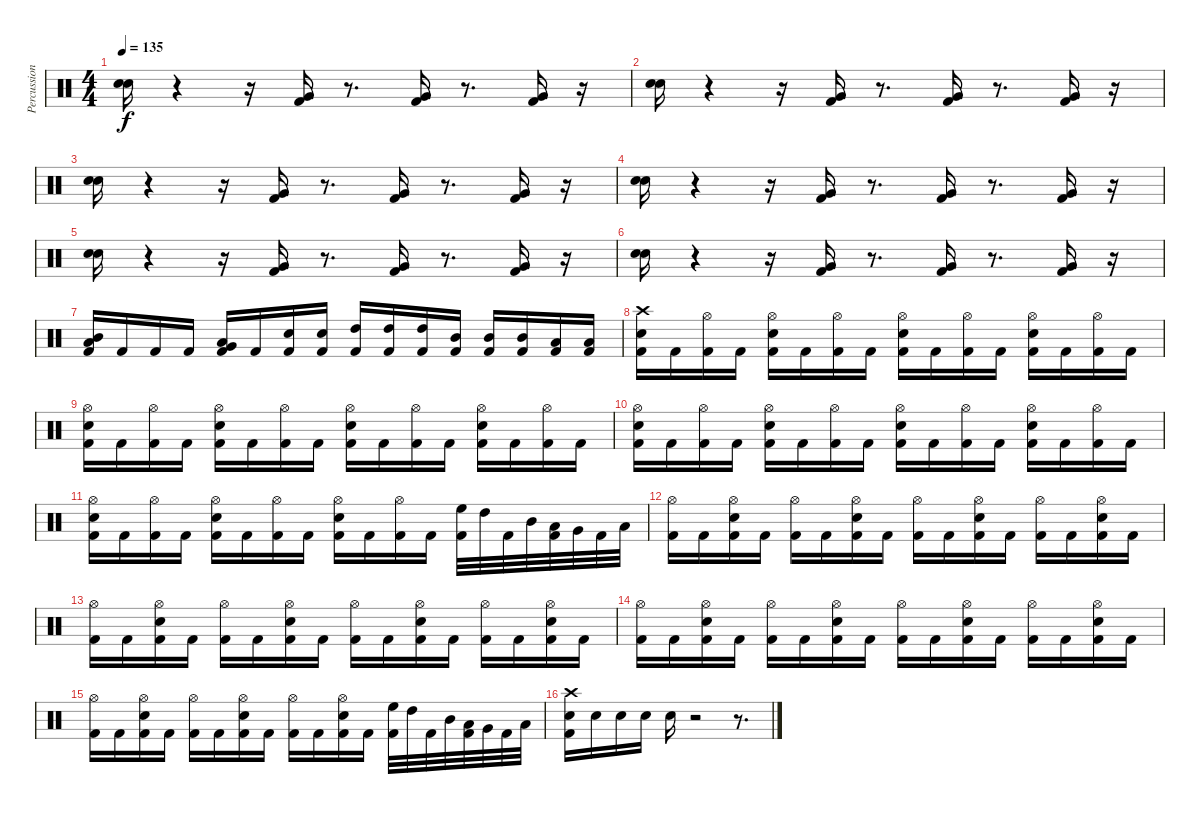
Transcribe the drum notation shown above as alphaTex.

\track ("Percussion" "Percussion") {instrument percussion}
\staff {score}
\articulation defaults
\ts (4 4)
\tempo 135
\clef neutral
\ks c
("Snare (hit) 2" "Electric Snare (hit)").16{dy f} r.4 r.16 ("Kick (hit) 2" "Very Low Tom (hit)").16 r.8{d} ("Kick (hit) 2" "Very Low Tom (hit)").16 r.8{d} ("Kick (hit) 2" "Very Low Tom (hit)").16 r.16 |
("Snare (hit) 2" "Electric Snare (hit)").16 r.4 r.16 ("Kick (hit) 2" "Very Low Tom (hit)").16 r.8{d} ("Kick (hit) 2" "Very Low Tom (hit)").16 r.8{d} ("Kick (hit) 2" "Very Low Tom (hit)").16 r.16 |
("Snare (hit) 2" "Electric Snare (hit)").16 r.4 r.16 ("Kick (hit) 2" "Very Low Tom (hit)").16 r.8{d} ("Kick (hit) 2" "Very Low Tom (hit)").16 r.8{d} ("Kick (hit) 2" "Very Low Tom (hit)").16 r.16 |
("Snare (hit) 2" "Electric Snare (hit)").16 r.4 r.16 ("Kick (hit) 2" "Very Low Tom (hit)").16 r.8{d} ("Kick (hit) 2" "Very Low Tom (hit)").16 r.8{d} ("Kick (hit) 2" "Very Low Tom (hit)").16 r.16 |
("Snare (hit) 2" "Electric Snare (hit)").16 r.4 r.16 ("Kick (hit) 2" "Very Low Tom (hit)").16 r.8{d} ("Kick (hit) 2" "Very Low Tom (hit)").16 r.8{d} ("Kick (hit) 2" "Very Low Tom (hit)").16 r.16 |
("Snare (hit) 2" "Electric Snare (hit)").16 r.4 r.16 ("Kick (hit) 2" "Very Low Tom (hit)").16 r.8{d} ("Kick (hit) 2" "Very Low Tom (hit)").16 r.8{d} ("Kick (hit) 2" "Very Low Tom (hit)").16 r.16 |
("Kick (hit) 2" "Low Tom (hit)" "Mid Tom (hit)").16 "Kick (hit) 2".16 "Kick (hit) 2".16 "Kick (hit) 2".16 ("Kick (hit) 2" "Low Floor Tom (hit)" "Very Low Tom (hit)").16 "Kick (hit) 2".16 ("Kick (hit) 2" "Electric Snare (hit)").16 ("Kick (hit) 2" "Electric Snare (hit)").16 ("Kick (hit) 2" "High Tom (hit)").16 ("Kick (hit) 2" "High Tom (hit)").16 ("Kick (hit) 2" "High Tom (hit)").16 ("Kick (hit) 2" "Mid Tom (hit)").16 ("Kick (hit) 2" "Mid Tom (hit)").16 ("Kick (hit) 2" "Mid Tom (hit)").16 ("Kick (hit) 2" "Low Tom (hit)").16 ("Kick (hit) 2" "Low Tom (hit)").16 |
("Kick (hit) 2" "Electric Snare (hit)" "Crash high (hit)").16 "Kick (hit) 2".16 ("Kick (hit) 2" "Hi-Hat (open)").16 "Kick (hit) 2".16 ("Kick (hit) 2" "Electric Snare (hit)" "Hi-Hat (open)").16 "Kick (hit) 2".16 ("Kick (hit) 2" "Hi-Hat (open)").16 "Kick (hit) 2".16 ("Kick (hit) 2" "Electric Snare (hit)" "Hi-Hat (open)").16 "Kick (hit) 2".16 ("Kick (hit) 2" "Hi-Hat (open)").16 "Kick (hit) 2".16 ("Kick (hit) 2" "Electric Snare (hit)" "Hi-Hat (open)").16 "Kick (hit) 2".16 ("Kick (hit) 2" "Hi-Hat (open)").16 "Kick (hit) 2".16 |
("Kick (hit) 2" "Electric Snare (hit)" "Hi-Hat (open)").16 "Kick (hit) 2".16 ("Kick (hit) 2" "Hi-Hat (open)").16 "Kick (hit) 2".16 ("Kick (hit) 2" "Electric Snare (hit)" "Hi-Hat (open)").16 "Kick (hit) 2".16 ("Kick (hit) 2" "Hi-Hat (open)").16 "Kick (hit) 2".16 ("Kick (hit) 2" "Electric Snare (hit)" "Hi-Hat (open)").16 "Kick (hit) 2".16 ("Kick (hit) 2" "Hi-Hat (open)").16 "Kick (hit) 2".16 ("Kick (hit) 2" "Electric Snare (hit)" "Hi-Hat (open)").16 "Kick (hit) 2".16 ("Kick (hit) 2" "Hi-Hat (open)").16 "Kick (hit) 2".16 |
("Kick (hit) 2" "Electric Snare (hit)" "Hi-Hat (open)").16 "Kick (hit) 2".16 ("Kick (hit) 2" "Hi-Hat (open)").16 "Kick (hit) 2".16 ("Kick (hit) 2" "Electric Snare (hit)" "Hi-Hat (open)").16 "Kick (hit) 2".16 ("Kick (hit) 2" "Hi-Hat (open)").16 "Kick (hit) 2".16 ("Kick (hit) 2" "Electric Snare (hit)" "Hi-Hat (open)").16 "Kick (hit) 2".16 ("Kick (hit) 2" "Hi-Hat (open)").16 "Kick (hit) 2".16 ("Kick (hit) 2" "Electric Snare (hit)" "Hi-Hat (open)").16 "Kick (hit) 2".16 ("Kick (hit) 2" "Hi-Hat (open)").16 "Kick (hit) 2".16 |
("Kick (hit) 2" "Electric Snare (hit)" "Hi-Hat (open)").16 "Kick (hit) 2".16 ("Kick (hit) 2" "Hi-Hat (open)").16 "Kick (hit) 2".16 ("Kick (hit) 2" "Electric Snare (hit)" "Hi-Hat (open)").16 "Kick (hit) 2".16 ("Kick (hit) 2" "Hi-Hat (open)").16 "Kick (hit) 2".16 ("Kick (hit) 2" "Electric Snare (hit)" "Hi-Hat (open)").16 "Kick (hit) 2".16 ("Kick (hit) 2" "Hi-Hat (open)").16 "Kick (hit) 2".16 ("Kick (hit) 2" "High Floor Tom (hit)").32 "High Tom (hit)".32 "Kick (hit) 2".32 "Mid Tom (hit)".32 ("Kick (hit) 2" "Low Tom (hit)").32 "Very Low Tom (hit)".32 "Kick (hit) 2".32 "Low Floor Tom (hit)".32 |
("Kick (hit) 2" "Hi-Hat (open)").16 "Kick (hit) 2".16 ("Kick (hit) 2" "Electric Snare (hit)" "Hi-Hat (open)").16 "Kick (hit) 2".16 ("Kick (hit) 2" "Hi-Hat (open)").16 "Kick (hit) 2".16 ("Kick (hit) 2" "Electric Snare (hit)" "Hi-Hat (open)").16 "Kick (hit) 2".16 ("Kick (hit) 2" "Hi-Hat (open)").16 "Kick (hit) 2".16 ("Kick (hit) 2" "Electric Snare (hit)" "Hi-Hat (open)").16 "Kick (hit) 2".16 ("Kick (hit) 2" "Hi-Hat (open)").16 "Kick (hit) 2".16 ("Kick (hit) 2" "Electric Snare (hit)" "Hi-Hat (open)").16 "Kick (hit) 2".16 |
("Kick (hit) 2" "Hi-Hat (open)").16 "Kick (hit) 2".16 ("Kick (hit) 2" "Electric Snare (hit)" "Hi-Hat (open)").16 "Kick (hit) 2".16 ("Kick (hit) 2" "Hi-Hat (open)").16 "Kick (hit) 2".16 ("Kick (hit) 2" "Electric Snare (hit)" "Hi-Hat (open)").16 "Kick (hit) 2".16 ("Kick (hit) 2" "Hi-Hat (open)").16 "Kick (hit) 2".16 ("Kick (hit) 2" "Electric Snare (hit)" "Hi-Hat (open)").16 "Kick (hit) 2".16 ("Kick (hit) 2" "Hi-Hat (open)").16 "Kick (hit) 2".16 ("Kick (hit) 2" "Electric Snare (hit)" "Hi-Hat (open)").16 "Kick (hit) 2".16 |
("Kick (hit) 2" "Hi-Hat (open)").16 "Kick (hit) 2".16 ("Kick (hit) 2" "Electric Snare (hit)" "Hi-Hat (open)").16 "Kick (hit) 2".16 ("Kick (hit) 2" "Hi-Hat (open)").16 "Kick (hit) 2".16 ("Kick (hit) 2" "Electric Snare (hit)" "Hi-Hat (open)").16 "Kick (hit) 2".16 ("Kick (hit) 2" "Hi-Hat (open)").16 "Kick (hit) 2".16 ("Kick (hit) 2" "Electric Snare (hit)" "Hi-Hat (open)").16 "Kick (hit) 2".16 ("Kick (hit) 2" "Hi-Hat (open)").16 "Kick (hit) 2".16 ("Kick (hit) 2" "Electric Snare (hit)" "Hi-Hat (open)").16 "Kick (hit) 2".16 |
("Kick (hit) 2" "Hi-Hat (open)").16 "Kick (hit) 2".16 ("Kick (hit) 2" "Electric Snare (hit)" "Hi-Hat (open)").16 "Kick (hit) 2".16 ("Kick (hit) 2" "Hi-Hat (open)").16 "Kick (hit) 2".16 ("Kick (hit) 2" "Electric Snare (hit)" "Hi-Hat (open)").16 "Kick (hit) 2".16 ("Kick (hit) 2" "Hi-Hat (open)").16 "Kick (hit) 2".16 ("Kick (hit) 2" "Electric Snare (hit)" "Hi-Hat (open)").16 "Kick (hit) 2".16 ("Kick (hit) 2" "High Floor Tom (hit)").32 "High Tom (hit)".32 "Kick (hit) 2".32 "Mid Tom (hit)".32 ("Kick (hit) 2" "Low Tom (hit)").32 "Very Low Tom (hit)".32 "Kick (hit) 2".32 "Low Floor Tom (hit)".32 |
("Kick (hit) 2" "Electric Snare (hit)" "Crash high (hit)").16 "Electric Snare (hit)".16 "Electric Snare (hit)".16 "Electric Snare (hit)".16 "Electric Snare (hit)".16 r.2 r.8{d}
